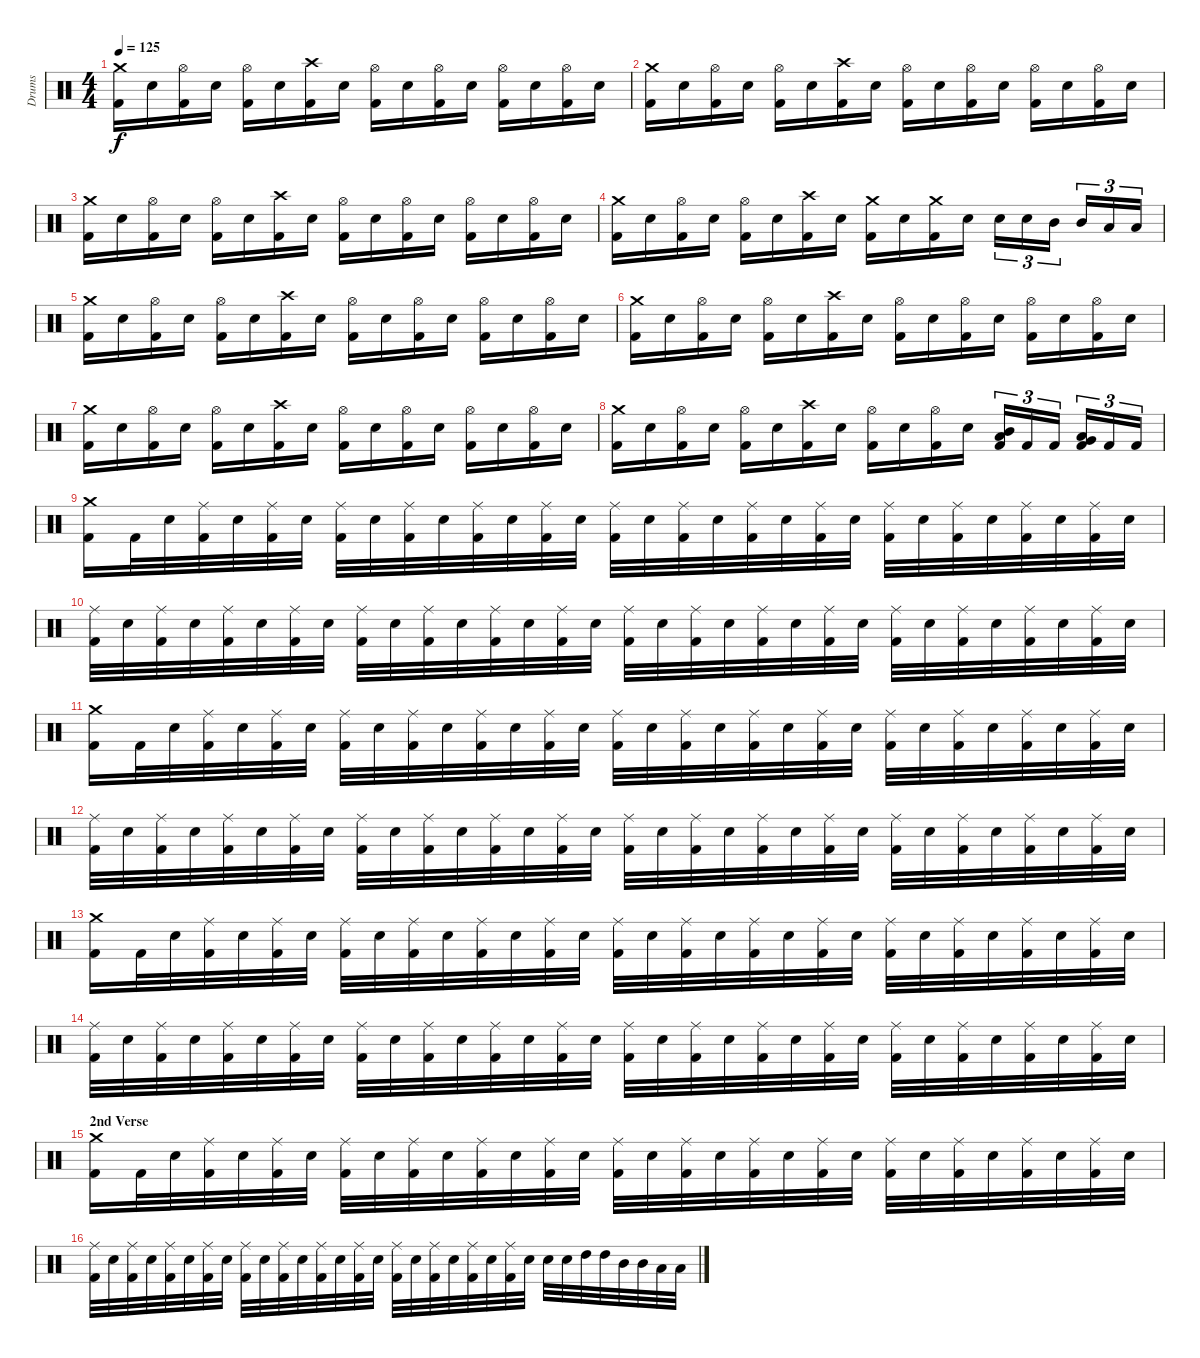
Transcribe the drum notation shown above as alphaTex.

\track ("Drums" "Drums") {instrument percussion}
\staff {score}
\articulation defaults
\ts (4 4)
\tempo 125
\clef neutral
\ks c
("Kick (hit) 2" "Crash medium (hit)").16{dy f} "Electric Snare (hit)".16 ("Kick (hit) 2" "Hi-Hat (open)").16 "Electric Snare (hit)".16 ("Kick (hit) 2" "Hi-Hat (open)").16 "Electric Snare (hit)".16 ("Kick (hit) 2" "Crash high (hit)").16 "Electric Snare (hit)".16 ("Kick (hit) 2" "Hi-Hat (open)").16 "Electric Snare (hit)".16 ("Kick (hit) 2" "Hi-Hat (open)").16 "Electric Snare (hit)".16 ("Kick (hit) 2" "Hi-Hat (open)").16 "Electric Snare (hit)".16 ("Kick (hit) 2" "Hi-Hat (open)").16 "Electric Snare (hit)".16 |
("Kick (hit) 2" "Crash medium (hit)").16 "Electric Snare (hit)".16 ("Kick (hit) 2" "Hi-Hat (open)").16 "Electric Snare (hit)".16 ("Kick (hit) 2" "Hi-Hat (open)").16 "Electric Snare (hit)".16 ("Kick (hit) 2" "Crash high (hit)").16 "Electric Snare (hit)".16 ("Kick (hit) 2" "Hi-Hat (open)").16 "Electric Snare (hit)".16 ("Kick (hit) 2" "Hi-Hat (open)").16 "Electric Snare (hit)".16 ("Kick (hit) 2" "Hi-Hat (open)").16 "Electric Snare (hit)".16 ("Kick (hit) 2" "Hi-Hat (open)").16 "Electric Snare (hit)".16 |
("Kick (hit) 2" "Crash medium (hit)").16 "Electric Snare (hit)".16 ("Kick (hit) 2" "Hi-Hat (open)").16 "Electric Snare (hit)".16 ("Kick (hit) 2" "Hi-Hat (open)").16 "Electric Snare (hit)".16 ("Kick (hit) 2" "Crash high (hit)").16 "Electric Snare (hit)".16 ("Kick (hit) 2" "Hi-Hat (open)").16 "Electric Snare (hit)".16 ("Kick (hit) 2" "Hi-Hat (open)").16 "Electric Snare (hit)".16 ("Kick (hit) 2" "Hi-Hat (open)").16 "Electric Snare (hit)".16 ("Kick (hit) 2" "Hi-Hat (open)").16 "Electric Snare (hit)".16 |
("Kick (hit) 2" "Crash medium (hit)").16 "Electric Snare (hit)".16 ("Kick (hit) 2" "Hi-Hat (open)").16 "Electric Snare (hit)".16 ("Kick (hit) 2" "Hi-Hat (open)").16 "Electric Snare (hit)".16 ("Kick (hit) 2" "Crash high (hit)").16 "Electric Snare (hit)".16 ("Kick (hit) 2" "Crash medium (hit)").16 "Electric Snare (hit)".16 ("Kick (hit) 2" "Crash medium (hit)").16 "Electric Snare (hit)".16 "Electric Snare (hit)".16{tu (3 2)} "Electric Snare (hit)".16{tu (3 2)} "Mid Tom (hit)".16{tu (3 2)} "Mid Tom (hit)".16{tu (3 2)} "Low Tom (hit)".16{tu (3 2)} "Low Tom (hit)".16{tu (3 2)} |
("Kick (hit) 2" "Crash medium (hit)").16 "Electric Snare (hit)".16 ("Kick (hit) 2" "Hi-Hat (open)").16 "Electric Snare (hit)".16 ("Kick (hit) 2" "Hi-Hat (open)").16 "Electric Snare (hit)".16 ("Kick (hit) 2" "Crash high (hit)").16 "Electric Snare (hit)".16 ("Kick (hit) 2" "Hi-Hat (open)").16 "Electric Snare (hit)".16 ("Kick (hit) 2" "Hi-Hat (open)").16 "Electric Snare (hit)".16 ("Kick (hit) 2" "Hi-Hat (open)").16 "Electric Snare (hit)".16 ("Kick (hit) 2" "Hi-Hat (open)").16 "Electric Snare (hit)".16 |
("Kick (hit) 2" "Crash medium (hit)").16 "Electric Snare (hit)".16 ("Kick (hit) 2" "Hi-Hat (open)").16 "Electric Snare (hit)".16 ("Kick (hit) 2" "Hi-Hat (open)").16 "Electric Snare (hit)".16 ("Kick (hit) 2" "Crash high (hit)").16 "Electric Snare (hit)".16 ("Kick (hit) 2" "Hi-Hat (open)").16 "Electric Snare (hit)".16 ("Kick (hit) 2" "Hi-Hat (open)").16 "Electric Snare (hit)".16 ("Kick (hit) 2" "Hi-Hat (open)").16 "Electric Snare (hit)".16 ("Kick (hit) 2" "Hi-Hat (open)").16 "Electric Snare (hit)".16 |
("Kick (hit) 2" "Crash medium (hit)").16 "Electric Snare (hit)".16 ("Kick (hit) 2" "Hi-Hat (open)").16 "Electric Snare (hit)".16 ("Kick (hit) 2" "Hi-Hat (open)").16 "Electric Snare (hit)".16 ("Kick (hit) 2" "Crash high (hit)").16 "Electric Snare (hit)".16 ("Kick (hit) 2" "Hi-Hat (open)").16 "Electric Snare (hit)".16 ("Kick (hit) 2" "Hi-Hat (open)").16 "Electric Snare (hit)".16 ("Kick (hit) 2" "Hi-Hat (open)").16 "Electric Snare (hit)".16 ("Kick (hit) 2" "Hi-Hat (open)").16 "Electric Snare (hit)".16 |
("Kick (hit) 2" "Crash medium (hit)").16 "Electric Snare (hit)".16 ("Kick (hit) 2" "Hi-Hat (open)").16 "Electric Snare (hit)".16 ("Kick (hit) 2" "Hi-Hat (open)").16 "Electric Snare (hit)".16 ("Kick (hit) 2" "Crash high (hit)").16 "Electric Snare (hit)".16 ("Kick (hit) 2" "Hi-Hat (open)").16 "Electric Snare (hit)".16 ("Kick (hit) 2" "Hi-Hat (open)").16 "Electric Snare (hit)".16 ("Kick (hit) 2" "Mid Tom (hit)" "Low Tom (hit)").16{tu (3 2)} "Kick (hit) 2".16{tu (3 2)} "Kick (hit) 2".16{tu (3 2)} ("Kick (hit) 2" "Low Tom (hit)" "Very Low Tom (hit)").16{tu (3 2)} "Kick (hit) 2".16{tu (3 2)} "Kick (hit) 2".16{tu (3 2)} |
("Kick (hit) 2" "Crash medium (hit)").16 "Kick (hit) 2".32 "Electric Snare (hit)".32 ("Kick (hit) 2" "Ride (middle)").32 "Electric Snare (hit)".32 ("Kick (hit) 2" "Ride (middle)").32 "Electric Snare (hit)".32 ("Kick (hit) 2" "Ride (middle)").32 "Electric Snare (hit)".32 ("Kick (hit) 2" "Ride (middle)").32 "Electric Snare (hit)".32 ("Kick (hit) 2" "Ride (middle)").32 "Electric Snare (hit)".32 ("Kick (hit) 2" "Ride (middle)").32 "Electric Snare (hit)".32 ("Kick (hit) 2" "Ride (middle)").32 "Electric Snare (hit)".32 ("Kick (hit) 2" "Ride (middle)").32 "Electric Snare (hit)".32 ("Kick (hit) 2" "Ride (middle)").32 "Electric Snare (hit)".32 ("Kick (hit) 2" "Ride (middle)").32 "Electric Snare (hit)".32 ("Kick (hit) 2" "Ride (middle)").32 "Electric Snare (hit)".32 ("Kick (hit) 2" "Ride (middle)").32 "Electric Snare (hit)".32 ("Kick (hit) 2" "Ride (middle)").32 "Electric Snare (hit)".32 ("Kick (hit) 2" "Ride (middle)").32 "Electric Snare (hit)".32 |
("Kick (hit) 2" "Ride (middle)").32 "Electric Snare (hit)".32 ("Kick (hit) 2" "Ride (middle)").32 "Electric Snare (hit)".32 ("Kick (hit) 2" "Ride (middle)").32 "Electric Snare (hit)".32 ("Kick (hit) 2" "Ride (middle)").32 "Electric Snare (hit)".32 ("Kick (hit) 2" "Ride (middle)").32 "Electric Snare (hit)".32 ("Kick (hit) 2" "Ride (middle)").32 "Electric Snare (hit)".32 ("Kick (hit) 2" "Ride (middle)").32 "Electric Snare (hit)".32 ("Kick (hit) 2" "Ride (middle)").32 "Electric Snare (hit)".32 ("Kick (hit) 2" "Ride (middle)").32 "Electric Snare (hit)".32 ("Kick (hit) 2" "Ride (middle)").32 "Electric Snare (hit)".32 ("Kick (hit) 2" "Ride (middle)").32 "Electric Snare (hit)".32 ("Kick (hit) 2" "Ride (middle)").32 "Electric Snare (hit)".32 ("Kick (hit) 2" "Ride (middle)").32 "Electric Snare (hit)".32 ("Kick (hit) 2" "Ride (middle)").32 "Electric Snare (hit)".32 ("Kick (hit) 2" "Ride (middle)").32 "Electric Snare (hit)".32 ("Kick (hit) 2" "Ride (middle)").32 "Electric Snare (hit)".32 |
("Kick (hit) 2" "Crash medium (hit)").16 "Kick (hit) 2".32 "Electric Snare (hit)".32 ("Kick (hit) 2" "Ride (middle)").32 "Electric Snare (hit)".32 ("Kick (hit) 2" "Ride (middle)").32 "Electric Snare (hit)".32 ("Kick (hit) 2" "Ride (middle)").32 "Electric Snare (hit)".32 ("Kick (hit) 2" "Ride (middle)").32 "Electric Snare (hit)".32 ("Kick (hit) 2" "Ride (middle)").32 "Electric Snare (hit)".32 ("Kick (hit) 2" "Ride (middle)").32 "Electric Snare (hit)".32 ("Kick (hit) 2" "Ride (middle)").32 "Electric Snare (hit)".32 ("Kick (hit) 2" "Ride (middle)").32 "Electric Snare (hit)".32 ("Kick (hit) 2" "Ride (middle)").32 "Electric Snare (hit)".32 ("Kick (hit) 2" "Ride (middle)").32 "Electric Snare (hit)".32 ("Kick (hit) 2" "Ride (middle)").32 "Electric Snare (hit)".32 ("Kick (hit) 2" "Ride (middle)").32 "Electric Snare (hit)".32 ("Kick (hit) 2" "Ride (middle)").32 "Electric Snare (hit)".32 ("Kick (hit) 2" "Ride (middle)").32 "Electric Snare (hit)".32 |
("Kick (hit) 2" "Ride (middle)").32 "Electric Snare (hit)".32 ("Kick (hit) 2" "Ride (middle)").32 "Electric Snare (hit)".32 ("Kick (hit) 2" "Ride (middle)").32 "Electric Snare (hit)".32 ("Kick (hit) 2" "Ride (middle)").32 "Electric Snare (hit)".32 ("Kick (hit) 2" "Ride (middle)").32 "Electric Snare (hit)".32 ("Kick (hit) 2" "Ride (middle)").32 "Electric Snare (hit)".32 ("Kick (hit) 2" "Ride (middle)").32 "Electric Snare (hit)".32 ("Kick (hit) 2" "Ride (middle)").32 "Electric Snare (hit)".32 ("Kick (hit) 2" "Ride (middle)").32 "Electric Snare (hit)".32 ("Kick (hit) 2" "Ride (middle)").32 "Electric Snare (hit)".32 ("Kick (hit) 2" "Ride (middle)").32 "Electric Snare (hit)".32 ("Kick (hit) 2" "Ride (middle)").32 "Electric Snare (hit)".32 ("Kick (hit) 2" "Ride (middle)").32 "Electric Snare (hit)".32 ("Kick (hit) 2" "Ride (middle)").32 "Electric Snare (hit)".32 ("Kick (hit) 2" "Ride (middle)").32 "Electric Snare (hit)".32 ("Kick (hit) 2" "Ride (middle)").32 "Electric Snare (hit)".32 |
("Kick (hit) 2" "Crash medium (hit)").16 "Kick (hit) 2".32 "Electric Snare (hit)".32 ("Kick (hit) 2" "Ride (middle)").32 "Electric Snare (hit)".32 ("Kick (hit) 2" "Ride (middle)").32 "Electric Snare (hit)".32 ("Kick (hit) 2" "Ride (middle)").32 "Electric Snare (hit)".32 ("Kick (hit) 2" "Ride (middle)").32 "Electric Snare (hit)".32 ("Kick (hit) 2" "Ride (middle)").32 "Electric Snare (hit)".32 ("Kick (hit) 2" "Ride (middle)").32 "Electric Snare (hit)".32 ("Kick (hit) 2" "Ride (middle)").32 "Electric Snare (hit)".32 ("Kick (hit) 2" "Ride (middle)").32 "Electric Snare (hit)".32 ("Kick (hit) 2" "Ride (middle)").32 "Electric Snare (hit)".32 ("Kick (hit) 2" "Ride (middle)").32 "Electric Snare (hit)".32 ("Kick (hit) 2" "Ride (middle)").32 "Electric Snare (hit)".32 ("Kick (hit) 2" "Ride (middle)").32 "Electric Snare (hit)".32 ("Kick (hit) 2" "Ride (middle)").32 "Electric Snare (hit)".32 ("Kick (hit) 2" "Ride (middle)").32 "Electric Snare (hit)".32 |
("Kick (hit) 2" "Ride (middle)").32 "Electric Snare (hit)".32 ("Kick (hit) 2" "Ride (middle)").32 "Electric Snare (hit)".32 ("Kick (hit) 2" "Ride (middle)").32 "Electric Snare (hit)".32 ("Kick (hit) 2" "Ride (middle)").32 "Electric Snare (hit)".32 ("Kick (hit) 2" "Ride (middle)").32 "Electric Snare (hit)".32 ("Kick (hit) 2" "Ride (middle)").32 "Electric Snare (hit)".32 ("Kick (hit) 2" "Ride (middle)").32 "Electric Snare (hit)".32 ("Kick (hit) 2" "Ride (middle)").32 "Electric Snare (hit)".32 ("Kick (hit) 2" "Ride (middle)").32 "Electric Snare (hit)".32 ("Kick (hit) 2" "Ride (middle)").32 "Electric Snare (hit)".32 ("Kick (hit) 2" "Ride (middle)").32 "Electric Snare (hit)".32 ("Kick (hit) 2" "Ride (middle)").32 "Electric Snare (hit)".32 ("Kick (hit) 2" "Ride (middle)").32 "Electric Snare (hit)".32 ("Kick (hit) 2" "Ride (middle)").32 "Electric Snare (hit)".32 ("Kick (hit) 2" "Ride (middle)").32 "Electric Snare (hit)".32 ("Kick (hit) 2" "Ride (middle)").32 "Electric Snare (hit)".32 |
\section ("" "2nd Verse")
("Kick (hit) 2" "Crash medium (hit)").16 "Kick (hit) 2".32 "Electric Snare (hit)".32 ("Kick (hit) 2" "Ride (middle)").32 "Electric Snare (hit)".32 ("Kick (hit) 2" "Ride (middle)").32 "Electric Snare (hit)".32 ("Kick (hit) 2" "Ride (middle)").32 "Electric Snare (hit)".32 ("Kick (hit) 2" "Ride (middle)").32 "Electric Snare (hit)".32 ("Kick (hit) 2" "Ride (middle)").32 "Electric Snare (hit)".32 ("Kick (hit) 2" "Ride (middle)").32 "Electric Snare (hit)".32 ("Kick (hit) 2" "Ride (middle)").32 "Electric Snare (hit)".32 ("Kick (hit) 2" "Ride (middle)").32 "Electric Snare (hit)".32 ("Kick (hit) 2" "Ride (middle)").32 "Electric Snare (hit)".32 ("Kick (hit) 2" "Ride (middle)").32 "Electric Snare (hit)".32 ("Kick (hit) 2" "Ride (middle)").32 "Electric Snare (hit)".32 ("Kick (hit) 2" "Ride (middle)").32 "Electric Snare (hit)".32 ("Kick (hit) 2" "Ride (middle)").32 "Electric Snare (hit)".32 ("Kick (hit) 2" "Ride (middle)").32 "Electric Snare (hit)".32 |
("Kick (hit) 2" "Ride (middle)").32 "Electric Snare (hit)".32 ("Kick (hit) 2" "Ride (middle)").32 "Electric Snare (hit)".32 ("Kick (hit) 2" "Ride (middle)").32 "Electric Snare (hit)".32 ("Kick (hit) 2" "Ride (middle)").32 "Electric Snare (hit)".32 ("Kick (hit) 2" "Ride (middle)").32 "Electric Snare (hit)".32 ("Kick (hit) 2" "Ride (middle)").32 "Electric Snare (hit)".32 ("Kick (hit) 2" "Ride (middle)").32 "Electric Snare (hit)".32 ("Kick (hit) 2" "Ride (middle)").32 "Electric Snare (hit)".32 ("Kick (hit) 2" "Ride (middle)").32 "Electric Snare (hit)".32 ("Kick (hit) 2" "Ride (middle)").32 "Electric Snare (hit)".32 ("Kick (hit) 2" "Ride (middle)").32 "Electric Snare (hit)".32 ("Kick (hit) 2" "Ride (middle)").32 "Electric Snare (hit)".32 "Electric Snare (hit)".32 "Electric Snare (hit)".32 "High Tom (hit)".32 "High Tom (hit)".32 "Mid Tom (hit)".32 "Mid Tom (hit)".32 "Low Tom (hit)".32 "Low Tom (hit)".32
